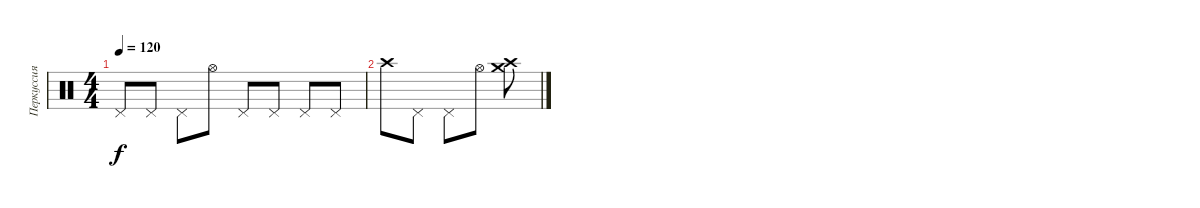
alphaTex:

\track ("Перкуссия" "Перкуссия") {instrument percussion}
\staff {score}
\articulation defaults
\ts (4 4)
\tempo 120
\clef neutral
\ks c "Pedal Hi-Hat (hit)".8{dy f} "Pedal Hi-Hat (hit)".8 "Pedal Hi-Hat (hit)".8 "Hi-Hat (open)".8 "Pedal Hi-Hat (hit)".8 "Pedal Hi-Hat (hit)".8 "Pedal Hi-Hat (hit)".8 "Pedal Hi-Hat (hit)".8
|
"Crash high (hit)".8 "Pedal Hi-Hat (hit)".8 "Pedal Hi-Hat (hit)".8 "Hi-Hat (open)".8 ("Crash high (hit)" "Crash medium (hit)").8
